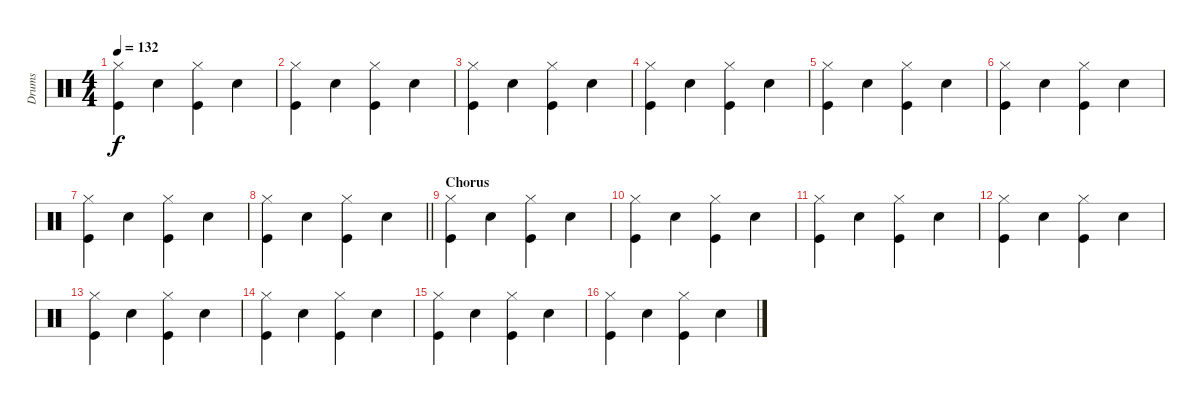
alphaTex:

\track ("Drums" "Drums") {instrument percussion}
\staff {score}
\articulation defaults
\ts (4 4)
\tempo 132
\clef neutral
\ks c
("Kick (hit)" "Hi-Hat (closed)").4{dy f} "Snare (hit) 2".4 ("Kick (hit)" "Hi-Hat (closed)").4 "Snare (hit) 2".4 |
("Kick (hit)" "Hi-Hat (closed)").4 "Snare (hit) 2".4 ("Kick (hit)" "Hi-Hat (closed)").4 "Snare (hit) 2".4 |
("Kick (hit)" "Hi-Hat (closed)").4 "Snare (hit) 2".4 ("Kick (hit)" "Hi-Hat (closed)").4 "Snare (hit) 2".4 |
("Kick (hit)" "Hi-Hat (closed)").4 "Snare (hit) 2".4 ("Kick (hit)" "Hi-Hat (closed)").4 "Snare (hit) 2".4 |
("Kick (hit)" "Hi-Hat (closed)").4 "Snare (hit) 2".4 ("Kick (hit)" "Hi-Hat (closed)").4 "Snare (hit) 2".4 |
("Kick (hit)" "Hi-Hat (closed)").4 "Snare (hit) 2".4 ("Kick (hit)" "Hi-Hat (closed)").4 "Snare (hit) 2".4 |
("Kick (hit)" "Hi-Hat (closed)").4 "Snare (hit) 2".4 ("Kick (hit)" "Hi-Hat (closed)").4 "Snare (hit) 2".4 |
\barLineRight lightlight
("Kick (hit)" "Hi-Hat (closed)").4 "Snare (hit) 2".4 ("Kick (hit)" "Hi-Hat (closed)").4 "Snare (hit) 2".4 |
\section ("" "Chorus")
("Kick (hit)" "Hi-Hat (closed)").4 "Snare (hit) 2".4 ("Kick (hit)" "Hi-Hat (closed)").4 "Snare (hit) 2".4 |
("Kick (hit)" "Hi-Hat (closed)").4 "Snare (hit) 2".4 ("Kick (hit)" "Hi-Hat (closed)").4 "Snare (hit) 2".4 |
("Kick (hit)" "Hi-Hat (closed)").4 "Snare (hit) 2".4 ("Kick (hit)" "Hi-Hat (closed)").4 "Snare (hit) 2".4 |
("Kick (hit)" "Hi-Hat (closed)").4 "Snare (hit) 2".4 ("Kick (hit)" "Hi-Hat (closed)").4 "Snare (hit) 2".4 |
("Kick (hit)" "Hi-Hat (closed)").4 "Snare (hit) 2".4 ("Kick (hit)" "Hi-Hat (closed)").4 "Snare (hit) 2".4 |
("Kick (hit)" "Hi-Hat (closed)").4 "Snare (hit) 2".4 ("Kick (hit)" "Hi-Hat (closed)").4 "Snare (hit) 2".4 |
("Kick (hit)" "Hi-Hat (closed)").4 "Snare (hit) 2".4 ("Kick (hit)" "Hi-Hat (closed)").4 "Snare (hit) 2".4 |
("Kick (hit)" "Hi-Hat (closed)").4 "Snare (hit) 2".4 ("Kick (hit)" "Hi-Hat (closed)").4 "Snare (hit) 2".4
